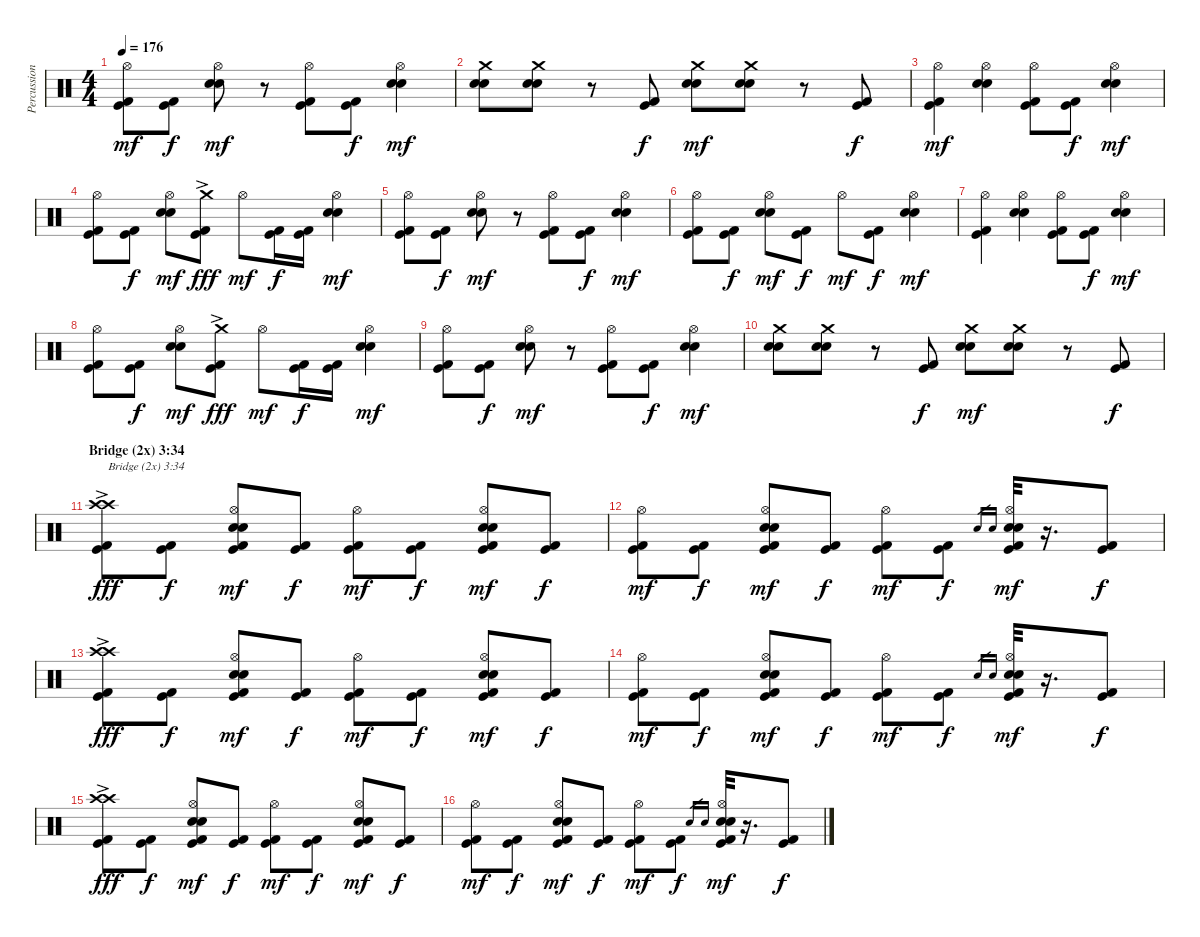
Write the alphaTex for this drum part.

\track ("Percussion" "Percussion") {instrument percussion}
\staff {score}
\articulation defaults
\ts (4 4)
\tempo 176
\clef neutral
\ks c
("Kick (hit) 2" "Kick (hit)" "Hi-Hat (open)").8{dy mf} ("Kick (hit) 2" "Kick (hit)").8{dy f} ("Electric Snare (hit)" "Snare (hit) 2" "Hi-Hat (open)").8{dy mf} r.8 ("Kick (hit) 2" "Kick (hit)" "Hi-Hat (open)").8 ("Kick (hit) 2" "Kick (hit)").8{dy f} ("Electric Snare (hit)" "Snare (hit) 2" "Hi-Hat (open)").4{dy mf} |
("Electric Snare (hit)" "Snare (hit) 2" "Crash medium (hit)").8 ("Electric Snare (hit)" "Snare (hit) 2" "Crash medium (hit)").8 r.8 ("Kick (hit) 2" "Kick (hit)").8{dy f} ("Electric Snare (hit)" "Snare (hit) 2" "Crash medium (hit)").8{dy mf} ("Electric Snare (hit)" "Snare (hit) 2" "Crash medium (hit)").8 r.8 ("Kick (hit) 2" "Kick (hit)").8{dy f} |
("Kick (hit) 2" "Kick (hit)" "Hi-Hat (open)").4{dy mf} ("Electric Snare (hit)" "Snare (hit) 2" "Hi-Hat (open)").4 ("Kick (hit) 2" "Kick (hit)" "Hi-Hat (open)").8 ("Kick (hit) 2" "Kick (hit)").8{dy f} ("Electric Snare (hit)" "Snare (hit) 2" "Hi-Hat (open)").4{dy mf} |
("Kick (hit) 2" "Kick (hit)" "Hi-Hat (open)").8 ("Kick (hit) 2" "Kick (hit)").8{dy f} ("Electric Snare (hit)" "Snare (hit) 2" "Hi-Hat (open)").8{dy mf} ("Kick (hit) 2" "Kick (hit)" "Crash medium (hit)"{ac}).8{dy fff} "Hi-Hat (open)".8{dy mf} ("Kick (hit) 2" "Kick (hit)").16{dy f} ("Kick (hit) 2" "Kick (hit)").16 ("Electric Snare (hit)" "Snare (hit) 2" "Hi-Hat (open)").4{dy mf} |
("Kick (hit) 2" "Kick (hit)" "Hi-Hat (open)").8 ("Kick (hit) 2" "Kick (hit)").8{dy f} ("Electric Snare (hit)" "Snare (hit) 2" "Hi-Hat (open)").8{dy mf} r.8 ("Kick (hit) 2" "Kick (hit)" "Hi-Hat (open)").8 ("Kick (hit) 2" "Kick (hit)").8{dy f} ("Electric Snare (hit)" "Snare (hit) 2" "Hi-Hat (open)").4{dy mf} |
("Kick (hit) 2" "Kick (hit)" "Hi-Hat (open)").8 ("Kick (hit) 2" "Kick (hit)").8{dy f} ("Electric Snare (hit)" "Snare (hit) 2" "Hi-Hat (open)").8{dy mf} ("Kick (hit) 2" "Kick (hit)").8{dy f} "Hi-Hat (open)".8{dy mf} ("Kick (hit) 2" "Kick (hit)").8{dy f} ("Electric Snare (hit)" "Snare (hit) 2" "Hi-Hat (open)").4{dy mf} |
("Kick (hit) 2" "Kick (hit)" "Hi-Hat (open)").4 ("Electric Snare (hit)" "Snare (hit) 2" "Hi-Hat (open)").4 ("Kick (hit) 2" "Kick (hit)" "Hi-Hat (open)").8 ("Kick (hit) 2" "Kick (hit)").8{dy f} ("Electric Snare (hit)" "Snare (hit) 2" "Hi-Hat (open)").4{dy mf} |
("Kick (hit) 2" "Kick (hit)" "Hi-Hat (open)").8 ("Kick (hit) 2" "Kick (hit)").8{dy f} ("Electric Snare (hit)" "Snare (hit) 2" "Hi-Hat (open)").8{dy mf} ("Kick (hit) 2" "Kick (hit)" "Crash medium (hit)"{ac}).8{dy fff} "Hi-Hat (open)".8{dy mf} ("Kick (hit) 2" "Kick (hit)").16{dy f} ("Kick (hit) 2" "Kick (hit)").16 ("Electric Snare (hit)" "Snare (hit) 2" "Hi-Hat (open)").4{dy mf} |
("Kick (hit) 2" "Kick (hit)" "Hi-Hat (open)").8 ("Kick (hit) 2" "Kick (hit)").8{dy f} ("Electric Snare (hit)" "Snare (hit) 2" "Hi-Hat (open)").8{dy mf} r.8 ("Kick (hit) 2" "Kick (hit)" "Hi-Hat (open)").8 ("Kick (hit) 2" "Kick (hit)").8{dy f} ("Electric Snare (hit)" "Snare (hit) 2" "Hi-Hat (open)").4{dy mf} |
("Electric Snare (hit)" "Snare (hit) 2" "Crash medium (hit)").8 ("Electric Snare (hit)" "Snare (hit) 2" "Crash medium (hit)").8 r.8 ("Kick (hit) 2" "Kick (hit)").8{dy f} ("Electric Snare (hit)" "Snare (hit) 2" "Crash medium (hit)").8{dy mf} ("Electric Snare (hit)" "Snare (hit) 2" "Crash medium (hit)").8 r.8 ("Kick (hit) 2" "Kick (hit)").8{dy f} |
\section ("" "Bridge (2x) 3:34")
("Kick (hit) 2" "Kick (hit)" "Crash high (hit)"{ac} "Crash high (hit)"{ac}).8{txt "Bridge (2x) 3:34" dy fff} ("Kick (hit) 2" "Kick (hit)").8{dy f} ("Kick (hit) 2" "Kick (hit)" "Electric Snare (hit)" "Snare (hit) 2" "Hi-Hat (open)").8{dy mf} ("Kick (hit) 2" "Kick (hit)").8{dy f} ("Kick (hit) 2" "Kick (hit)" "Hi-Hat (open)").8{dy mf} ("Kick (hit) 2" "Kick (hit)").8{dy f} ("Kick (hit) 2" "Kick (hit)" "Electric Snare (hit)" "Snare (hit) 2" "Hi-Hat (open)").8{dy mf} ("Kick (hit) 2" "Kick (hit)").8{dy f} |
("Kick (hit) 2" "Kick (hit)" "Hi-Hat (open)").8{dy mf} ("Kick (hit) 2" "Kick (hit)").8{dy f} ("Kick (hit) 2" "Kick (hit)" "Electric Snare (hit)" "Snare (hit) 2" "Hi-Hat (open)").8{dy mf} ("Kick (hit) 2" "Kick (hit)").8{dy f} ("Kick (hit) 2" "Kick (hit)" "Hi-Hat (open)").8{dy mf} ("Kick (hit) 2" "Kick (hit)").8{dy f} "Electric Snare (hit)".16{gr} "Snare (hit) 2".16{gr} ("Kick (hit) 2" "Kick (hit)" "Electric Snare (hit)" "Snare (hit) 2" "Hi-Hat (open)").32{dy mf} r.16{d} ("Kick (hit) 2" "Kick (hit)").8{dy f} |
("Kick (hit) 2" "Kick (hit)" "Crash high (hit)"{ac} "Crash high (hit)"{ac}).8{dy fff} ("Kick (hit) 2" "Kick (hit)").8{dy f} ("Kick (hit) 2" "Kick (hit)" "Electric Snare (hit)" "Snare (hit) 2" "Hi-Hat (open)").8{dy mf} ("Kick (hit) 2" "Kick (hit)").8{dy f} ("Kick (hit) 2" "Kick (hit)" "Hi-Hat (open)").8{dy mf} ("Kick (hit) 2" "Kick (hit)").8{dy f} ("Kick (hit) 2" "Kick (hit)" "Electric Snare (hit)" "Snare (hit) 2" "Hi-Hat (open)").8{dy mf} ("Kick (hit) 2" "Kick (hit)").8{dy f} |
("Kick (hit) 2" "Kick (hit)" "Hi-Hat (open)").8{dy mf} ("Kick (hit) 2" "Kick (hit)").8{dy f} ("Kick (hit) 2" "Kick (hit)" "Electric Snare (hit)" "Snare (hit) 2" "Hi-Hat (open)").8{dy mf} ("Kick (hit) 2" "Kick (hit)").8{dy f} ("Kick (hit) 2" "Kick (hit)" "Hi-Hat (open)").8{dy mf} ("Kick (hit) 2" "Kick (hit)").8{dy f} "Electric Snare (hit)".16{gr} "Snare (hit) 2".16{gr} ("Kick (hit) 2" "Kick (hit)" "Electric Snare (hit)" "Snare (hit) 2" "Hi-Hat (open)").32{dy mf} r.16{d} ("Kick (hit) 2" "Kick (hit)").8{dy f} |
("Kick (hit) 2" "Kick (hit)" "Crash high (hit)"{ac} "Crash high (hit)"{ac}).8{dy fff} ("Kick (hit) 2" "Kick (hit)").8{dy f} ("Kick (hit) 2" "Kick (hit)" "Electric Snare (hit)" "Snare (hit) 2" "Hi-Hat (open)").8{dy mf} ("Kick (hit) 2" "Kick (hit)").8{dy f} ("Kick (hit) 2" "Kick (hit)" "Hi-Hat (open)").8{dy mf} ("Kick (hit) 2" "Kick (hit)").8{dy f} ("Kick (hit) 2" "Kick (hit)" "Electric Snare (hit)" "Snare (hit) 2" "Hi-Hat (open)").8{dy mf} ("Kick (hit) 2" "Kick (hit)").8{dy f} |
("Kick (hit) 2" "Kick (hit)" "Hi-Hat (open)").8{dy mf} ("Kick (hit) 2" "Kick (hit)").8{dy f} ("Kick (hit) 2" "Kick (hit)" "Electric Snare (hit)" "Snare (hit) 2" "Hi-Hat (open)").8{dy mf} ("Kick (hit) 2" "Kick (hit)").8{dy f} ("Kick (hit) 2" "Kick (hit)" "Hi-Hat (open)").8{dy mf} ("Kick (hit) 2" "Kick (hit)").8{dy f} "Electric Snare (hit)".16{gr} "Snare (hit) 2".16{gr} ("Kick (hit) 2" "Kick (hit)" "Electric Snare (hit)" "Snare (hit) 2" "Hi-Hat (open)").32{dy mf} r.16{d} ("Kick (hit) 2" "Kick (hit)").8{dy f}
